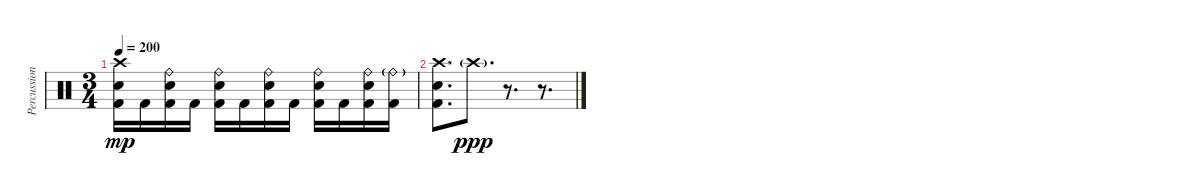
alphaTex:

\track ("Percussion" "Percussion") {instrument percussion}
\staff {score}
\articulation defaults
\ts (3 4)
\tempo 200
\clef neutral
\ks c
("Crash high (hit)" "Electric Snare (hit)" "Kick (hit) 2").16{dy mp} "Kick (hit) 2".16 ("Ride (bell)" "Electric Snare (hit)" "Kick (hit) 2").16 "Kick (hit) 2".16 ("Ride (bell)" "Electric Snare (hit)" "Kick (hit) 2").16 "Kick (hit) 2".16 ("Ride (bell)" "Electric Snare (hit)" "Kick (hit) 2").16 "Kick (hit) 2".16 ("Ride (bell)" "Electric Snare (hit)" "Kick (hit) 2").16 "Kick (hit) 2".16 ("Ride (bell)" "Electric Snare (hit)" "Kick (hit) 2").16 ("Ride (bell)"{g} "Kick (hit) 2").16 |
("Crash high (hit)" "Electric Snare (hit)" "Kick (hit) 2").8{d} "Crash high (hit)"{g}.8{d dy ppp} r.8{d} r.8{d}
